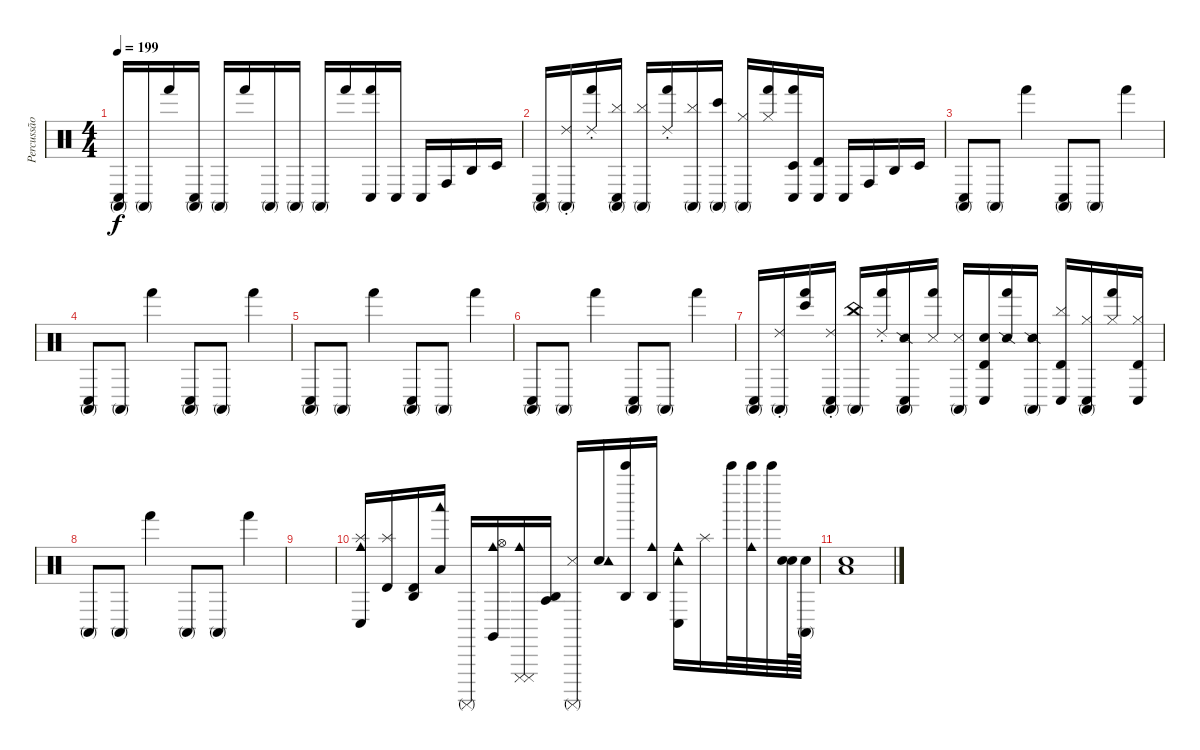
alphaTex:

\track ("Percussão" "Percussão") {instrument percussion}
\staff {score}
\articulation defaults
\ts (4 4)
\tempo 199
\clef neutral
\ks c
("Conga high (mute)" "Conga low (hit)").16{dy f} "Conga high (mute)".16 "Hand (hit)".16 ("Conga high (mute)" "Conga low (hit)").16 "Conga high (mute)".16 "Hand (hit)".16 "Conga high (mute)".16 "Conga high (mute)".16 "Conga high (mute)".16 "Hand (hit)".16 ("Conga low (hit)" "Hand (hit)").16 "Conga low (hit)".16 "Conga low (hit)".16 "Conga high (hit)".16 "Agogo high (hit)".16 "Timbale low (hit)".16 |
("Conga high (mute)" "Conga low (hit)").16 ("Conga high (mute)" "Ride (choke) 2").16 ("Hand (hit)" "Ride (choke) 2").16 ("Conga high (mute)" "Conga low (hit)" "Cymbal (hit)").16 ("Conga high (mute)" "Cymbal (hit)").16 ("Hand (hit)" "Ride (choke) 2").16 ("Conga high (mute)" "Cymbal (hit)").16 ("Conga high (mute)" "Bongo High (hit)").16 ("Conga high (mute)" "Hi-Hat (closed)").16 ("Hand (hit)" "Hi-Hat (closed)").16 ("Conga low (hit)" "Hand (hit)" "Timbale low (hit)").16 ("Conga low (hit)" "Timbale high (hit)").16 "Conga low (hit)".16 "Conga high (hit)".16 "Agogo high (hit)".16 "Timbale low (hit)".16 |
("Conga high (mute)" "Conga low (hit)").8 "Conga high (mute)".8 "Hand (hit)".4 ("Conga high (mute)" "Conga low (hit)").8 "Conga high (mute)".8 "Hand (hit)".4 |
("Conga high (mute)" "Conga low (hit)").8 "Conga high (mute)".8 "Hand (hit)".4 ("Conga high (mute)" "Conga low (hit)").8 "Conga high (mute)".8 "Hand (hit)".4 |
("Conga high (mute)" "Conga low (hit)").8 "Conga high (mute)".8 "Hand (hit)".4 ("Conga high (mute)" "Conga low (hit)").8 "Conga high (mute)".8 "Hand (hit)".4 |
("Conga high (mute)" "Conga low (hit)").8 "Conga high (mute)".8 "Hand (hit)".4 ("Conga high (mute)" "Conga low (hit)").8 "Conga high (mute)".8 "Hand (hit)".4 |
("Conga high (mute)" "Conga low (hit)").16 ("Conga high (mute)" "Ride (choke) 2").16 ("Hand (hit)" "Bongo High (hit)").16 ("Conga high (mute)" "Conga low (hit)" "Ride (choke) 2").16 ("Conga high (mute)" "China (hit)").16 ("Hand (hit)" "Ride (choke) 2").16 ("Conga high (mute)" "Conga low (hit)" "Snare (side stick) 2").16 ("Hand (hit)" "Metronome (hit)").16 ("Conga high (mute)" "Metronome (hit)").16 ("Timbale high (hit)" "Conga low (hit)" "Snare (hit) 2").16 ("Hand (hit)" "Snare (side stick) 2").16 ("Conga high (mute)" "Snare (side stick) 2").16 ("Timbale high (hit)" "Conga low (hit)" "Cymbal (hit)").16 ("Conga high (mute)" "Conga low (hit)" "Hi-Hat (closed)").16 ("Hand (hit)" "Hi-Hat (closed)").16 ("Timbale high (hit)" "Conga low (hit)" "Hi-Hat (closed)").16 |
"Conga high (mute)".8 "Conga high (mute)".8 "Hand (hit)".4 "Conga high (mute)".8 "Conga high (mute)".8 "Hand (hit)".4 |
|
("Cowbell medium (hit)" "Conga low (hit)" "Splash (hit)").16 ("Splash (hit)" "Timbale high (hit)").16 ("Timbale high (hit)" "Agogo high (hit)").16 ("Low Tom (hit)" "Woodblock low (hit)").16 "Surdo (mute)".16 ("Cowbell medium (hit)" "Claves (hit)" "Hi-Hat (open)").16 ("Cuica (mute)" "Cuica (mute)" "Cowbell medium (hit)").16 ("Agogo tow (hit)" "Agogo high (hit)").16 ("Surdo (mute)" "Metronome (hit)").16 ("Snare (hit)" "Tambourine (hit)").16 ("Bell Tree (hit)" "Agogo high (hit)").16 ("Agogo high (hit)" "Cowbell medium (hit)").16 ("Tambourine (hit)" "Conga low (hit)" "Cowbell medium (hit)").16 "Splash (hit)".16 "Bell Tree (hit)".32 ("Bell Tree (hit)" "Cowbell medium (hit)").32 "Bell Tree (hit)".32 ("Snare (hit)" "Snare (hit)").64 ("Conga high (mute)" "Snare (hit)").64 |
("Snare (hit)" "Low Tom (hit)").1
